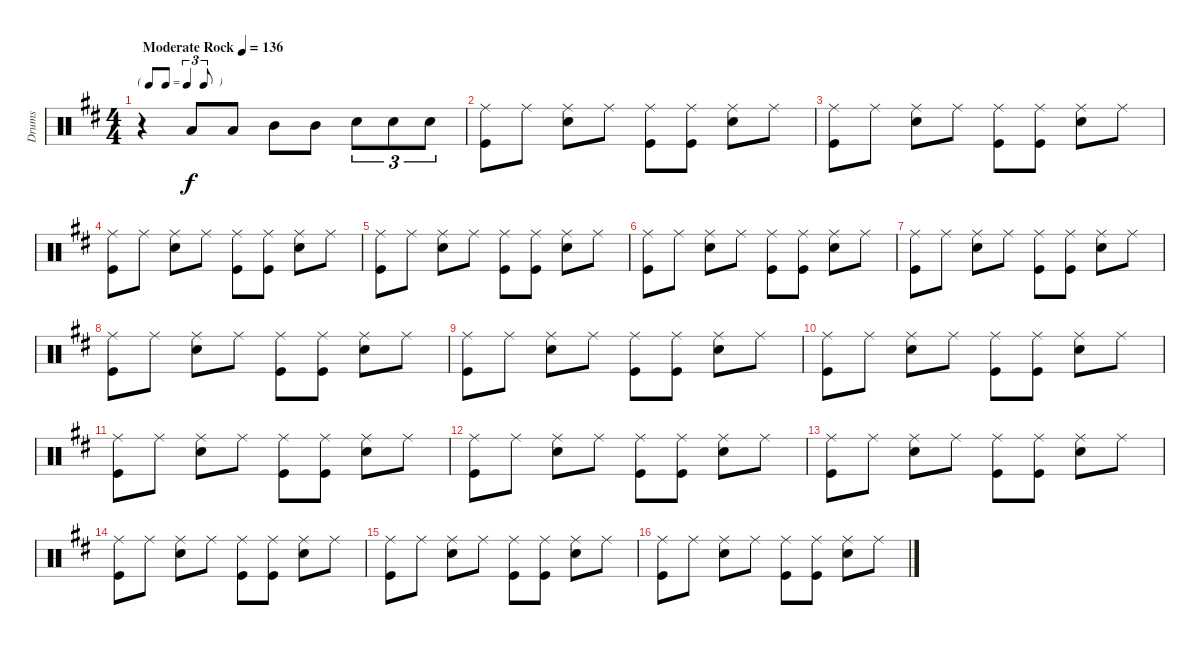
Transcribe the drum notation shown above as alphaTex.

\track ("Drums" "Drums") {instrument percussion}
\staff {score}
\articulation defaults
\ts (4 4)
\tf triplet8th
\tempo (136 "Moderate Rock")
\clef neutral
\ks d
r.4{dy f} "Low Tom (hit)".8 "Low Tom (hit)".8 "Mid Tom (hit)".8 "Mid Tom (hit)".8 "Snare (hit) 2".8{tu (3 2)} "Snare (hit) 2".8{tu (3 2)} "Snare (hit) 2".8{tu (3 2)} |
("Ride (middle)" "Kick (hit)").8 "Ride (middle)".8 ("Ride (middle)" "Snare (hit) 2").8 "Ride (middle)".8 ("Ride (middle)" "Kick (hit)").8 ("Ride (middle)" "Kick (hit)").8 ("Ride (middle)" "Snare (hit) 2").8 "Ride (middle)".8 |
("Ride (middle)" "Kick (hit)").8 "Ride (middle)".8 ("Ride (middle)" "Snare (hit) 2").8 "Ride (middle)".8 ("Ride (middle)" "Kick (hit)").8 ("Ride (middle)" "Kick (hit)").8 ("Ride (middle)" "Snare (hit) 2").8 "Ride (middle)".8 |
("Ride (middle)" "Kick (hit)").8 "Ride (middle)".8 ("Ride (middle)" "Snare (hit) 2").8 "Ride (middle)".8 ("Ride (middle)" "Kick (hit)").8 ("Ride (middle)" "Kick (hit)").8 ("Ride (middle)" "Snare (hit) 2").8 "Ride (middle)".8 |
("Ride (middle)" "Kick (hit)").8 "Ride (middle)".8 ("Ride (middle)" "Snare (hit) 2").8 "Ride (middle)".8 ("Ride (middle)" "Kick (hit)").8 ("Ride (middle)" "Kick (hit)").8 ("Ride (middle)" "Snare (hit) 2").8 "Ride (middle)".8 |
("Ride (middle)" "Kick (hit)").8 "Ride (middle)".8 ("Ride (middle)" "Snare (hit) 2").8 "Ride (middle)".8 ("Ride (middle)" "Kick (hit)").8 ("Ride (middle)" "Kick (hit)").8 ("Ride (middle)" "Snare (hit) 2").8 "Ride (middle)".8 |
("Ride (middle)" "Kick (hit)").8 "Ride (middle)".8 ("Ride (middle)" "Snare (hit) 2").8 "Ride (middle)".8 ("Ride (middle)" "Kick (hit)").8 ("Ride (middle)" "Kick (hit)").8 ("Ride (middle)" "Snare (hit) 2").8 "Ride (middle)".8 |
("Ride (middle)" "Kick (hit)").8 "Ride (middle)".8 ("Ride (middle)" "Snare (hit) 2").8 "Ride (middle)".8 ("Ride (middle)" "Kick (hit)").8 ("Ride (middle)" "Kick (hit)").8 ("Ride (middle)" "Snare (hit) 2").8 "Ride (middle)".8 |
("Ride (middle)" "Kick (hit)").8 "Ride (middle)".8 ("Ride (middle)" "Snare (hit) 2").8 "Ride (middle)".8 ("Ride (middle)" "Kick (hit)").8 ("Ride (middle)" "Kick (hit)").8 ("Ride (middle)" "Snare (hit) 2").8 "Ride (middle)".8 |
("Ride (middle)" "Kick (hit)").8 "Ride (middle)".8 ("Ride (middle)" "Snare (hit) 2").8 "Ride (middle)".8 ("Ride (middle)" "Kick (hit)").8 ("Ride (middle)" "Kick (hit)").8 ("Ride (middle)" "Snare (hit) 2").8 "Ride (middle)".8 |
("Ride (middle)" "Kick (hit)").8 "Ride (middle)".8 ("Ride (middle)" "Snare (hit) 2").8 "Ride (middle)".8 ("Ride (middle)" "Kick (hit)").8 ("Ride (middle)" "Kick (hit)").8 ("Ride (middle)" "Snare (hit) 2").8 "Ride (middle)".8 |
("Ride (middle)" "Kick (hit)").8 "Ride (middle)".8 ("Ride (middle)" "Snare (hit) 2").8 "Ride (middle)".8 ("Ride (middle)" "Kick (hit)").8 ("Ride (middle)" "Kick (hit)").8 ("Ride (middle)" "Snare (hit) 2").8 "Ride (middle)".8 |
("Ride (middle)" "Kick (hit)").8 "Ride (middle)".8 ("Ride (middle)" "Snare (hit) 2").8 "Ride (middle)".8 ("Ride (middle)" "Kick (hit)").8 ("Ride (middle)" "Kick (hit)").8 ("Ride (middle)" "Snare (hit) 2").8 "Ride (middle)".8 |
("Ride (middle)" "Kick (hit)").8 "Ride (middle)".8 ("Ride (middle)" "Snare (hit) 2").8 "Ride (middle)".8 ("Ride (middle)" "Kick (hit)").8 ("Ride (middle)" "Kick (hit)").8 ("Ride (middle)" "Snare (hit) 2").8 "Ride (middle)".8 |
("Ride (middle)" "Kick (hit)").8 "Ride (middle)".8 ("Ride (middle)" "Snare (hit) 2").8 "Ride (middle)".8 ("Ride (middle)" "Kick (hit)").8 ("Ride (middle)" "Kick (hit)").8 ("Ride (middle)" "Snare (hit) 2").8 "Ride (middle)".8 |
("Ride (middle)" "Kick (hit)").8 "Ride (middle)".8 ("Ride (middle)" "Snare (hit) 2").8 "Ride (middle)".8 ("Ride (middle)" "Kick (hit)").8 ("Ride (middle)" "Kick (hit)").8 ("Ride (middle)" "Snare (hit) 2").8 "Ride (middle)".8
